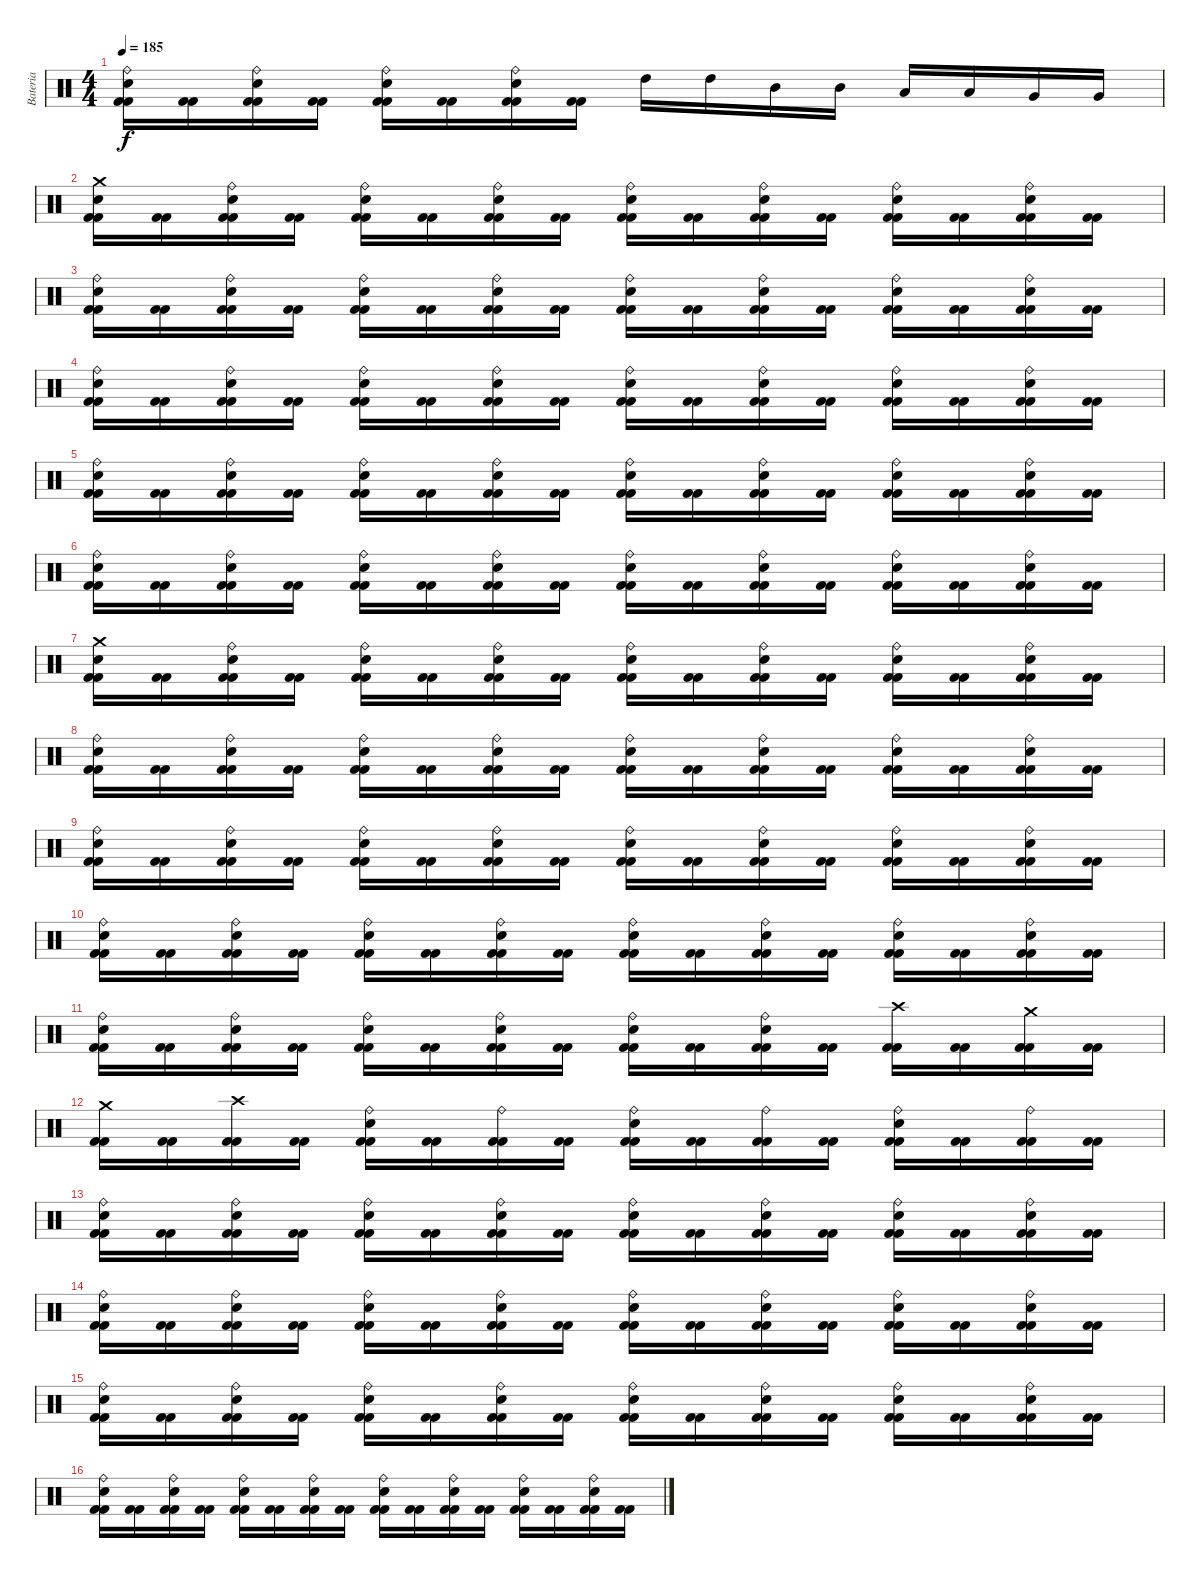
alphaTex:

\track ("Bateria" "Bateria") {instrument percussion}
\staff {score}
\articulation defaults
\ts (4 4)
\tempo 185
\clef neutral
\ks c
("Kick (hit) 2" "Kick (hit) 2" "Electric Snare (hit)" "Ride (bell)").16{dy f} ("Kick (hit) 2" "Kick (hit) 2").16 ("Kick (hit) 2" "Kick (hit) 2" "Ride (bell)" "Electric Snare (hit)").16 ("Kick (hit) 2" "Kick (hit) 2").16 ("Kick (hit) 2" "Kick (hit) 2" "Electric Snare (hit)" "Ride (bell)").16 ("Kick (hit) 2" "Kick (hit) 2").16 ("Kick (hit) 2" "Kick (hit) 2" "Ride (bell)" "Electric Snare (hit)").16 ("Kick (hit) 2" "Kick (hit) 2").16 "High Tom (hit)".16 "High Tom (hit)".16 "Mid Tom (hit)".16 "Mid Tom (hit)".16 "Low Tom (hit)".16 "Low Tom (hit)".16 "Very Low Tom (hit)".16 "Very Low Tom (hit)".16 |
("Kick (hit) 2" "Kick (hit) 2" "Electric Snare (hit)" "Crash medium (hit)").16 ("Kick (hit) 2" "Kick (hit) 2").16 ("Kick (hit) 2" "Kick (hit) 2" "Ride (bell)" "Electric Snare (hit)").16 ("Kick (hit) 2" "Kick (hit) 2").16 ("Kick (hit) 2" "Kick (hit) 2" "Electric Snare (hit)" "Ride (bell)").16 ("Kick (hit) 2" "Kick (hit) 2").16 ("Kick (hit) 2" "Kick (hit) 2" "Ride (bell)" "Electric Snare (hit)").16 ("Kick (hit) 2" "Kick (hit) 2").16 ("Kick (hit) 2" "Kick (hit) 2" "Electric Snare (hit)" "Ride (bell)").16 ("Kick (hit) 2" "Kick (hit) 2").16 ("Kick (hit) 2" "Kick (hit) 2" "Ride (bell)" "Electric Snare (hit)").16 ("Kick (hit) 2" "Kick (hit) 2").16 ("Kick (hit) 2" "Kick (hit) 2" "Electric Snare (hit)" "Ride (bell)").16 ("Kick (hit) 2" "Kick (hit) 2").16 ("Kick (hit) 2" "Kick (hit) 2" "Ride (bell)" "Electric Snare (hit)").16 ("Kick (hit) 2" "Kick (hit) 2").16 |
("Kick (hit) 2" "Kick (hit) 2" "Electric Snare (hit)" "Ride (bell)").16 ("Kick (hit) 2" "Kick (hit) 2").16 ("Kick (hit) 2" "Kick (hit) 2" "Ride (bell)" "Electric Snare (hit)").16 ("Kick (hit) 2" "Kick (hit) 2").16 ("Kick (hit) 2" "Kick (hit) 2" "Electric Snare (hit)" "Ride (bell)").16 ("Kick (hit) 2" "Kick (hit) 2").16 ("Kick (hit) 2" "Kick (hit) 2" "Ride (bell)" "Electric Snare (hit)").16 ("Kick (hit) 2" "Kick (hit) 2").16 ("Kick (hit) 2" "Kick (hit) 2" "Electric Snare (hit)" "Ride (bell)").16 ("Kick (hit) 2" "Kick (hit) 2").16 ("Kick (hit) 2" "Kick (hit) 2" "Ride (bell)" "Electric Snare (hit)").16 ("Kick (hit) 2" "Kick (hit) 2").16 ("Kick (hit) 2" "Kick (hit) 2" "Electric Snare (hit)" "Ride (bell)").16 ("Kick (hit) 2" "Kick (hit) 2").16 ("Kick (hit) 2" "Kick (hit) 2" "Ride (bell)" "Electric Snare (hit)").16 ("Kick (hit) 2" "Kick (hit) 2").16 |
("Kick (hit) 2" "Kick (hit) 2" "Electric Snare (hit)" "Ride (bell)").16 ("Kick (hit) 2" "Kick (hit) 2").16 ("Kick (hit) 2" "Kick (hit) 2" "Ride (bell)" "Electric Snare (hit)").16 ("Kick (hit) 2" "Kick (hit) 2").16 ("Kick (hit) 2" "Kick (hit) 2" "Electric Snare (hit)" "Ride (bell)").16 ("Kick (hit) 2" "Kick (hit) 2").16 ("Kick (hit) 2" "Kick (hit) 2" "Ride (bell)" "Electric Snare (hit)").16 ("Kick (hit) 2" "Kick (hit) 2").16 ("Kick (hit) 2" "Kick (hit) 2" "Electric Snare (hit)" "Ride (bell)").16 ("Kick (hit) 2" "Kick (hit) 2").16 ("Kick (hit) 2" "Kick (hit) 2" "Ride (bell)" "Electric Snare (hit)").16 ("Kick (hit) 2" "Kick (hit) 2").16 ("Kick (hit) 2" "Kick (hit) 2" "Electric Snare (hit)" "Ride (bell)").16 ("Kick (hit) 2" "Kick (hit) 2").16 ("Kick (hit) 2" "Kick (hit) 2" "Ride (bell)" "Electric Snare (hit)").16 ("Kick (hit) 2" "Kick (hit) 2").16 |
("Kick (hit) 2" "Kick (hit) 2" "Electric Snare (hit)" "Ride (bell)").16 ("Kick (hit) 2" "Kick (hit) 2").16 ("Kick (hit) 2" "Kick (hit) 2" "Ride (bell)" "Electric Snare (hit)").16 ("Kick (hit) 2" "Kick (hit) 2").16 ("Kick (hit) 2" "Kick (hit) 2" "Electric Snare (hit)" "Ride (bell)").16 ("Kick (hit) 2" "Kick (hit) 2").16 ("Kick (hit) 2" "Kick (hit) 2" "Ride (bell)" "Electric Snare (hit)").16 ("Kick (hit) 2" "Kick (hit) 2").16 ("Kick (hit) 2" "Kick (hit) 2" "Electric Snare (hit)" "Ride (bell)").16 ("Kick (hit) 2" "Kick (hit) 2").16 ("Kick (hit) 2" "Kick (hit) 2" "Ride (bell)" "Electric Snare (hit)").16 ("Kick (hit) 2" "Kick (hit) 2").16 ("Kick (hit) 2" "Kick (hit) 2" "Electric Snare (hit)" "Ride (bell)").16 ("Kick (hit) 2" "Kick (hit) 2").16 ("Kick (hit) 2" "Kick (hit) 2" "Ride (bell)" "Electric Snare (hit)").16 ("Kick (hit) 2" "Kick (hit) 2").16 |
("Kick (hit) 2" "Kick (hit) 2" "Electric Snare (hit)" "Ride (bell)").16 ("Kick (hit) 2" "Kick (hit) 2").16 ("Kick (hit) 2" "Kick (hit) 2" "Ride (bell)" "Electric Snare (hit)").16 ("Kick (hit) 2" "Kick (hit) 2").16 ("Kick (hit) 2" "Kick (hit) 2" "Electric Snare (hit)" "Ride (bell)").16 ("Kick (hit) 2" "Kick (hit) 2").16 ("Kick (hit) 2" "Kick (hit) 2" "Ride (bell)" "Electric Snare (hit)").16 ("Kick (hit) 2" "Kick (hit) 2").16 ("Kick (hit) 2" "Kick (hit) 2" "Electric Snare (hit)" "Ride (bell)").16 ("Kick (hit) 2" "Kick (hit) 2").16 ("Kick (hit) 2" "Kick (hit) 2" "Ride (bell)" "Electric Snare (hit)").16 ("Kick (hit) 2" "Kick (hit) 2").16 ("Kick (hit) 2" "Kick (hit) 2" "Electric Snare (hit)" "Ride (bell)").16 ("Kick (hit) 2" "Kick (hit) 2").16 ("Kick (hit) 2" "Kick (hit) 2" "Ride (bell)" "Electric Snare (hit)").16 ("Kick (hit) 2" "Kick (hit) 2").16 |
("Kick (hit) 2" "Kick (hit) 2" "Electric Snare (hit)" "Crash medium (hit)").16 ("Kick (hit) 2" "Kick (hit) 2").16 ("Kick (hit) 2" "Kick (hit) 2" "Ride (bell)" "Electric Snare (hit)").16 ("Kick (hit) 2" "Kick (hit) 2").16 ("Kick (hit) 2" "Kick (hit) 2" "Electric Snare (hit)" "Ride (bell)").16 ("Kick (hit) 2" "Kick (hit) 2").16 ("Kick (hit) 2" "Kick (hit) 2" "Ride (bell)" "Electric Snare (hit)").16 ("Kick (hit) 2" "Kick (hit) 2").16 ("Kick (hit) 2" "Kick (hit) 2" "Electric Snare (hit)" "Ride (bell)").16 ("Kick (hit) 2" "Kick (hit) 2").16 ("Kick (hit) 2" "Kick (hit) 2" "Ride (bell)" "Electric Snare (hit)").16 ("Kick (hit) 2" "Kick (hit) 2").16 ("Kick (hit) 2" "Kick (hit) 2" "Electric Snare (hit)" "Ride (bell)").16 ("Kick (hit) 2" "Kick (hit) 2").16 ("Kick (hit) 2" "Kick (hit) 2" "Ride (bell)" "Electric Snare (hit)").16 ("Kick (hit) 2" "Kick (hit) 2").16 |
("Kick (hit) 2" "Kick (hit) 2" "Electric Snare (hit)" "Ride (bell)").16 ("Kick (hit) 2" "Kick (hit) 2").16 ("Kick (hit) 2" "Kick (hit) 2" "Ride (bell)" "Electric Snare (hit)").16 ("Kick (hit) 2" "Kick (hit) 2").16 ("Kick (hit) 2" "Kick (hit) 2" "Electric Snare (hit)" "Ride (bell)").16 ("Kick (hit) 2" "Kick (hit) 2").16 ("Kick (hit) 2" "Kick (hit) 2" "Ride (bell)" "Electric Snare (hit)").16 ("Kick (hit) 2" "Kick (hit) 2").16 ("Kick (hit) 2" "Kick (hit) 2" "Electric Snare (hit)" "Ride (bell)").16 ("Kick (hit) 2" "Kick (hit) 2").16 ("Kick (hit) 2" "Kick (hit) 2" "Ride (bell)" "Electric Snare (hit)").16 ("Kick (hit) 2" "Kick (hit) 2").16 ("Kick (hit) 2" "Kick (hit) 2" "Electric Snare (hit)" "Ride (bell)").16 ("Kick (hit) 2" "Kick (hit) 2").16 ("Kick (hit) 2" "Kick (hit) 2" "Ride (bell)" "Electric Snare (hit)").16 ("Kick (hit) 2" "Kick (hit) 2").16 |
("Kick (hit) 2" "Kick (hit) 2" "Electric Snare (hit)" "Ride (bell)").16 ("Kick (hit) 2" "Kick (hit) 2").16 ("Kick (hit) 2" "Kick (hit) 2" "Ride (bell)" "Electric Snare (hit)").16 ("Kick (hit) 2" "Kick (hit) 2").16 ("Kick (hit) 2" "Kick (hit) 2" "Electric Snare (hit)" "Ride (bell)").16 ("Kick (hit) 2" "Kick (hit) 2").16 ("Kick (hit) 2" "Kick (hit) 2" "Ride (bell)" "Electric Snare (hit)").16 ("Kick (hit) 2" "Kick (hit) 2").16 ("Kick (hit) 2" "Kick (hit) 2" "Electric Snare (hit)" "Ride (bell)").16 ("Kick (hit) 2" "Kick (hit) 2").16 ("Kick (hit) 2" "Kick (hit) 2" "Ride (bell)" "Electric Snare (hit)").16 ("Kick (hit) 2" "Kick (hit) 2").16 ("Kick (hit) 2" "Kick (hit) 2" "Electric Snare (hit)" "Ride (bell)").16 ("Kick (hit) 2" "Kick (hit) 2").16 ("Kick (hit) 2" "Kick (hit) 2" "Ride (bell)" "Electric Snare (hit)").16 ("Kick (hit) 2" "Kick (hit) 2").16 |
("Kick (hit) 2" "Kick (hit) 2" "Electric Snare (hit)" "Ride (bell)").16 ("Kick (hit) 2" "Kick (hit) 2").16 ("Kick (hit) 2" "Kick (hit) 2" "Ride (bell)" "Electric Snare (hit)").16 ("Kick (hit) 2" "Kick (hit) 2").16 ("Kick (hit) 2" "Kick (hit) 2" "Electric Snare (hit)" "Ride (bell)").16 ("Kick (hit) 2" "Kick (hit) 2").16 ("Kick (hit) 2" "Kick (hit) 2" "Ride (bell)" "Electric Snare (hit)").16 ("Kick (hit) 2" "Kick (hit) 2").16 ("Kick (hit) 2" "Kick (hit) 2" "Electric Snare (hit)" "Ride (bell)").16 ("Kick (hit) 2" "Kick (hit) 2").16 ("Kick (hit) 2" "Kick (hit) 2" "Ride (bell)" "Electric Snare (hit)").16 ("Kick (hit) 2" "Kick (hit) 2").16 ("Kick (hit) 2" "Kick (hit) 2" "Electric Snare (hit)" "Ride (bell)").16 ("Kick (hit) 2" "Kick (hit) 2").16 ("Kick (hit) 2" "Kick (hit) 2" "Ride (bell)" "Electric Snare (hit)").16 ("Kick (hit) 2" "Kick (hit) 2").16 |
("Kick (hit) 2" "Kick (hit) 2" "Electric Snare (hit)" "Ride (bell)").16 ("Kick (hit) 2" "Kick (hit) 2").16 ("Kick (hit) 2" "Kick (hit) 2" "Ride (bell)" "Electric Snare (hit)").16 ("Kick (hit) 2" "Kick (hit) 2").16 ("Kick (hit) 2" "Kick (hit) 2" "Electric Snare (hit)" "Ride (bell)").16 ("Kick (hit) 2" "Kick (hit) 2").16 ("Kick (hit) 2" "Kick (hit) 2" "Ride (bell)" "Electric Snare (hit)").16 ("Kick (hit) 2" "Kick (hit) 2").16 ("Kick (hit) 2" "Kick (hit) 2" "Electric Snare (hit)" "Ride (bell)").16 ("Kick (hit) 2" "Kick (hit) 2").16 ("Kick (hit) 2" "Kick (hit) 2" "Ride (bell)" "Electric Snare (hit)").16 ("Kick (hit) 2" "Kick (hit) 2").16 ("Kick (hit) 2" "Kick (hit) 2" "Crash high (hit)").16 ("Kick (hit) 2" "Kick (hit) 2").16 ("Kick (hit) 2" "Kick (hit) 2" "Crash medium (hit)").16 ("Kick (hit) 2" "Kick (hit) 2").16 |
("Kick (hit) 2" "Kick (hit) 2" "Crash medium (hit)").16 ("Kick (hit) 2" "Kick (hit) 2").16 ("Kick (hit) 2" "Kick (hit) 2" "Crash high (hit)").16 ("Kick (hit) 2" "Kick (hit) 2").16 ("Kick (hit) 2" "Kick (hit) 2" "Electric Snare (hit)" "Ride (bell)").16 ("Kick (hit) 2" "Kick (hit) 2").16 ("Kick (hit) 2" "Kick (hit) 2" "Ride (bell)").16 ("Kick (hit) 2" "Kick (hit) 2").16 ("Kick (hit) 2" "Kick (hit) 2" "Electric Snare (hit)" "Ride (bell)").16 ("Kick (hit) 2" "Kick (hit) 2").16 ("Kick (hit) 2" "Kick (hit) 2" "Ride (bell)").16 ("Kick (hit) 2" "Kick (hit) 2").16 ("Kick (hit) 2" "Kick (hit) 2" "Electric Snare (hit)" "Ride (bell)").16 ("Kick (hit) 2" "Kick (hit) 2").16 ("Kick (hit) 2" "Kick (hit) 2" "Ride (bell)").16 ("Kick (hit) 2" "Kick (hit) 2").16 |
("Kick (hit) 2" "Kick (hit) 2" "Electric Snare (hit)" "Ride (bell)").16 ("Kick (hit) 2" "Kick (hit) 2").16 ("Kick (hit) 2" "Kick (hit) 2" "Ride (bell)" "Electric Snare (hit)").16 ("Kick (hit) 2" "Kick (hit) 2").16 ("Kick (hit) 2" "Kick (hit) 2" "Electric Snare (hit)" "Ride (bell)").16 ("Kick (hit) 2" "Kick (hit) 2").16 ("Kick (hit) 2" "Kick (hit) 2" "Ride (bell)" "Electric Snare (hit)").16 ("Kick (hit) 2" "Kick (hit) 2").16 ("Kick (hit) 2" "Kick (hit) 2" "Electric Snare (hit)" "Ride (bell)").16 ("Kick (hit) 2" "Kick (hit) 2").16 ("Kick (hit) 2" "Kick (hit) 2" "Ride (bell)" "Electric Snare (hit)").16 ("Kick (hit) 2" "Kick (hit) 2").16 ("Kick (hit) 2" "Kick (hit) 2" "Electric Snare (hit)" "Ride (bell)").16 ("Kick (hit) 2" "Kick (hit) 2").16 ("Kick (hit) 2" "Kick (hit) 2" "Ride (bell)" "Electric Snare (hit)").16 ("Kick (hit) 2" "Kick (hit) 2").16 |
("Kick (hit) 2" "Kick (hit) 2" "Electric Snare (hit)" "Ride (bell)").16 ("Kick (hit) 2" "Kick (hit) 2").16 ("Kick (hit) 2" "Kick (hit) 2" "Ride (bell)" "Electric Snare (hit)").16 ("Kick (hit) 2" "Kick (hit) 2").16 ("Kick (hit) 2" "Kick (hit) 2" "Electric Snare (hit)" "Ride (bell)").16 ("Kick (hit) 2" "Kick (hit) 2").16 ("Kick (hit) 2" "Kick (hit) 2" "Ride (bell)" "Electric Snare (hit)").16 ("Kick (hit) 2" "Kick (hit) 2").16 ("Kick (hit) 2" "Kick (hit) 2" "Electric Snare (hit)" "Ride (bell)").16 ("Kick (hit) 2" "Kick (hit) 2").16 ("Kick (hit) 2" "Kick (hit) 2" "Ride (bell)" "Electric Snare (hit)").16 ("Kick (hit) 2" "Kick (hit) 2").16 ("Kick (hit) 2" "Kick (hit) 2" "Electric Snare (hit)" "Ride (bell)").16 ("Kick (hit) 2" "Kick (hit) 2").16 ("Kick (hit) 2" "Kick (hit) 2" "Ride (bell)" "Electric Snare (hit)").16 ("Kick (hit) 2" "Kick (hit) 2").16 |
("Kick (hit) 2" "Kick (hit) 2" "Electric Snare (hit)" "Ride (bell)").16 ("Kick (hit) 2" "Kick (hit) 2").16 ("Kick (hit) 2" "Kick (hit) 2" "Ride (bell)" "Electric Snare (hit)").16 ("Kick (hit) 2" "Kick (hit) 2").16 ("Kick (hit) 2" "Kick (hit) 2" "Electric Snare (hit)" "Ride (bell)").16 ("Kick (hit) 2" "Kick (hit) 2").16 ("Kick (hit) 2" "Kick (hit) 2" "Ride (bell)" "Electric Snare (hit)").16 ("Kick (hit) 2" "Kick (hit) 2").16 ("Kick (hit) 2" "Kick (hit) 2" "Electric Snare (hit)" "Ride (bell)").16 ("Kick (hit) 2" "Kick (hit) 2").16 ("Kick (hit) 2" "Kick (hit) 2" "Ride (bell)" "Electric Snare (hit)").16 ("Kick (hit) 2" "Kick (hit) 2").16 ("Kick (hit) 2" "Kick (hit) 2" "Electric Snare (hit)" "Ride (bell)").16 ("Kick (hit) 2" "Kick (hit) 2").16 ("Kick (hit) 2" "Kick (hit) 2" "Ride (bell)" "Electric Snare (hit)").16 ("Kick (hit) 2" "Kick (hit) 2").16 |
("Kick (hit) 2" "Kick (hit) 2" "Electric Snare (hit)" "Ride (bell)").16 ("Kick (hit) 2" "Kick (hit) 2").16 ("Kick (hit) 2" "Kick (hit) 2" "Ride (bell)" "Electric Snare (hit)").16 ("Kick (hit) 2" "Kick (hit) 2").16 ("Kick (hit) 2" "Kick (hit) 2" "Electric Snare (hit)" "Ride (bell)").16 ("Kick (hit) 2" "Kick (hit) 2").16 ("Kick (hit) 2" "Kick (hit) 2" "Ride (bell)" "Electric Snare (hit)").16 ("Kick (hit) 2" "Kick (hit) 2").16 ("Kick (hit) 2" "Kick (hit) 2" "Electric Snare (hit)" "Ride (bell)").16 ("Kick (hit) 2" "Kick (hit) 2").16 ("Kick (hit) 2" "Kick (hit) 2" "Ride (bell)" "Electric Snare (hit)").16 ("Kick (hit) 2" "Kick (hit) 2").16 ("Kick (hit) 2" "Kick (hit) 2" "Electric Snare (hit)" "Ride (bell)").16 ("Kick (hit) 2" "Kick (hit) 2").16 ("Kick (hit) 2" "Kick (hit) 2" "Ride (bell)" "Electric Snare (hit)").16 ("Kick (hit) 2" "Kick (hit) 2").16
